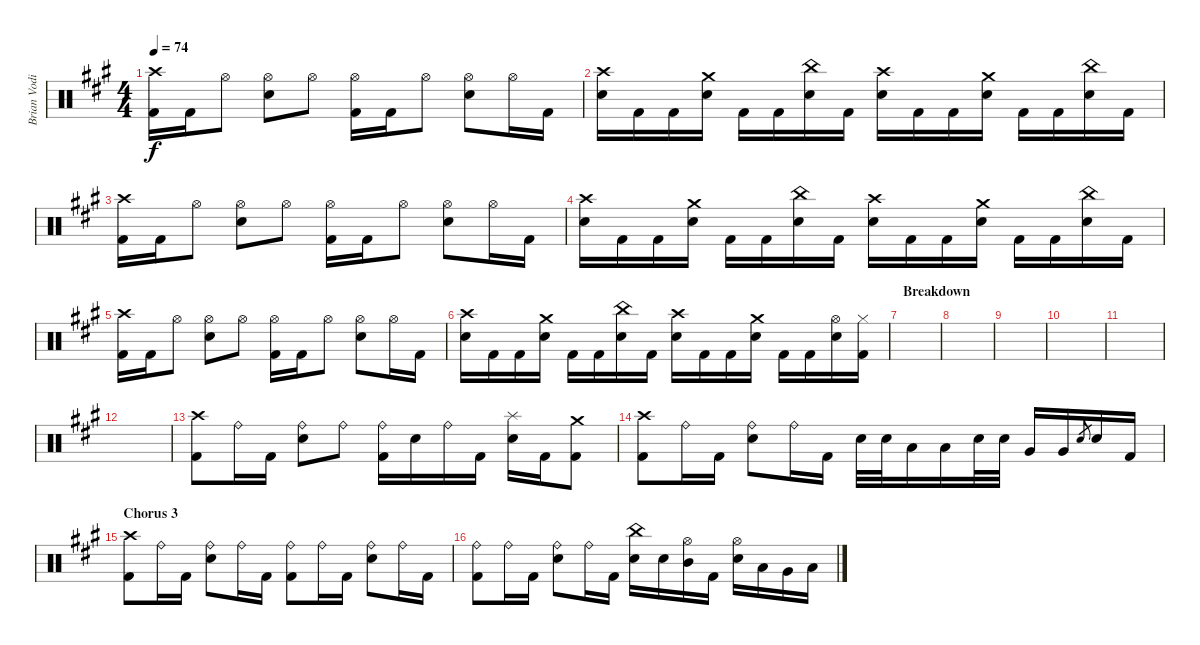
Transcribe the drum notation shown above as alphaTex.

\track ("Brian Vodinh" "Brian Vodi") {instrument percussion}
\staff {score}
\articulation defaults
\ts (4 4)
\tempo 74
\clef neutral
\ks f#minor
("Crash high (hit)" "Kick (hit) 2").16{dy f} "Kick (hit) 2".16 "Hi-Hat (open)".8 ("Hi-Hat (open)" "Electric Snare (hit)").8 "Hi-Hat (open)".8 ("Hi-Hat (open)" "Kick (hit) 2").16 "Kick (hit) 2".16 "Hi-Hat (open)".8 ("Hi-Hat (open)" "Electric Snare (hit)").8 "Hi-Hat (open)".16 "Kick (hit) 2".16 |
("Crash high (hit)" "Electric Snare (hit)").16 "Kick (hit) 2".16 "Kick (hit) 2".16 ("Crash medium (hit)" "Electric Snare (hit)").16 "Kick (hit) 2".16 "Kick (hit) 2".16 ("China (hit)" "Electric Snare (hit)").16 "Kick (hit) 2".16 ("Crash high (hit)" "Electric Snare (hit)").16 "Kick (hit) 2".16 "Kick (hit) 2".16 ("Crash medium (hit)" "Electric Snare (hit)").16 "Kick (hit) 2".16 "Kick (hit) 2".16 ("China (hit)" "Electric Snare (hit)").16 "Kick (hit) 2".16 |
("Crash high (hit)" "Kick (hit) 2").16 "Kick (hit) 2".16 "Hi-Hat (open)".8 ("Hi-Hat (open)" "Electric Snare (hit)").8 "Hi-Hat (open)".8 ("Hi-Hat (open)" "Kick (hit) 2").16 "Kick (hit) 2".16 "Hi-Hat (open)".8 ("Hi-Hat (open)" "Electric Snare (hit)").8 "Hi-Hat (open)".16 "Kick (hit) 2".16 |
("Crash high (hit)" "Electric Snare (hit)").16 "Kick (hit) 2".16 "Kick (hit) 2".16 ("Crash medium (hit)" "Electric Snare (hit)").16 "Kick (hit) 2".16 "Kick (hit) 2".16 ("China (hit)" "Electric Snare (hit)").16 "Kick (hit) 2".16 ("Crash high (hit)" "Electric Snare (hit)").16 "Kick (hit) 2".16 "Kick (hit) 2".16 ("Crash medium (hit)" "Electric Snare (hit)").16 "Kick (hit) 2".16 "Kick (hit) 2".16 ("China (hit)" "Electric Snare (hit)").16 "Kick (hit) 2".16 |
("Crash high (hit)" "Kick (hit) 2").16 "Kick (hit) 2".16 "Hi-Hat (open)".8 ("Hi-Hat (open)" "Electric Snare (hit)").8 "Hi-Hat (open)".8 ("Hi-Hat (open)" "Kick (hit) 2").16 "Kick (hit) 2".16 "Hi-Hat (open)".8 ("Hi-Hat (open)" "Electric Snare (hit)").8 "Hi-Hat (open)".16 "Kick (hit) 2".16 |
("Crash high (hit)" "Electric Snare (hit)").16 "Kick (hit) 2".16 "Kick (hit) 2".16 ("Crash medium (hit)" "Electric Snare (hit)").16 "Kick (hit) 2".16 "Kick (hit) 2".16 ("China (hit)" "Electric Snare (hit)").16 "Kick (hit) 2".16 ("Crash high (hit)" "Electric Snare (hit)").16 "Kick (hit) 2".16 "Kick (hit) 2".16 ("Crash medium (hit)" "Electric Snare (hit)").16 "Kick (hit) 2".16 "Kick (hit) 2".16 ("Hi-Hat (open)" "Electric Snare (hit)").16 ("Hi-Hat (closed)" "Kick (hit) 2").16 |
\section ("" "Breakdown")
|
|
|
|
|
|
("Crash high (hit)" "Kick (hit) 2").8 "Ride (bell)".16 "Kick (hit) 2".16 ("Ride (bell)" "Electric Snare (hit)").8 "Ride (bell)".8 ("Ride (bell)" "Kick (hit) 2").16 "Electric Snare (hit)".16 "Ride (bell)".16 "Kick (hit) 2".16 ("Splash (hit)" "Electric Snare (hit)").16 "Kick (hit) 2".16 ("Crash medium (hit)" "Kick (hit) 2").8 |
("Crash high (hit)" "Kick (hit) 2").8 "Ride (bell)".16 "Kick (hit) 2".16 ("Ride (bell)" "Electric Snare (hit)").8 "Ride (bell)".16 "Kick (hit) 2".16 "Electric Snare (hit)".32 "Electric Snare (hit)".32 "Low Tom (hit)".16 "Low Tom (hit)".16 "Electric Snare (hit)".32 "Electric Snare (hit)".32 "Very Low Tom (hit)".16 "Very Low Tom (hit)".16 "Electric Snare (hit)".8{gr} "Electric Snare (hit)".16 "Kick (hit) 2".16 |
\section ("" "Chorus 3")
("Crash high (hit)" "Kick (hit) 2").8 "Ride (bell)".16 "Kick (hit) 2".16 ("Ride (bell)" "Electric Snare (hit)").8 "Ride (bell)".16 "Kick (hit) 2".16 ("Ride (bell)" "Kick (hit) 2").8 "Ride (bell)".16 "Kick (hit) 2".16 ("Ride (bell)" "Electric Snare (hit)").8 "Ride (bell)".16 "Kick (hit) 2".16 |
("Ride (bell)" "Kick (hit) 2").8 "Ride (bell)".16 "Kick (hit) 2".16 ("Ride (bell)" "Electric Snare (hit)").8 "Ride (bell)".16 "Kick (hit) 2".16 ("China (hit)" "Electric Snare (hit)").16 "Electric Snare (hit)".16 ("Hi-Hat (open)" "Mid Tom (hit)").16 "Kick (hit) 2".16 ("Hi-Hat (open)" "Electric Snare (hit)").16 "Low Tom (hit)".16 "Very Low Tom (hit)".16 "Low Floor Tom (hit)".16
